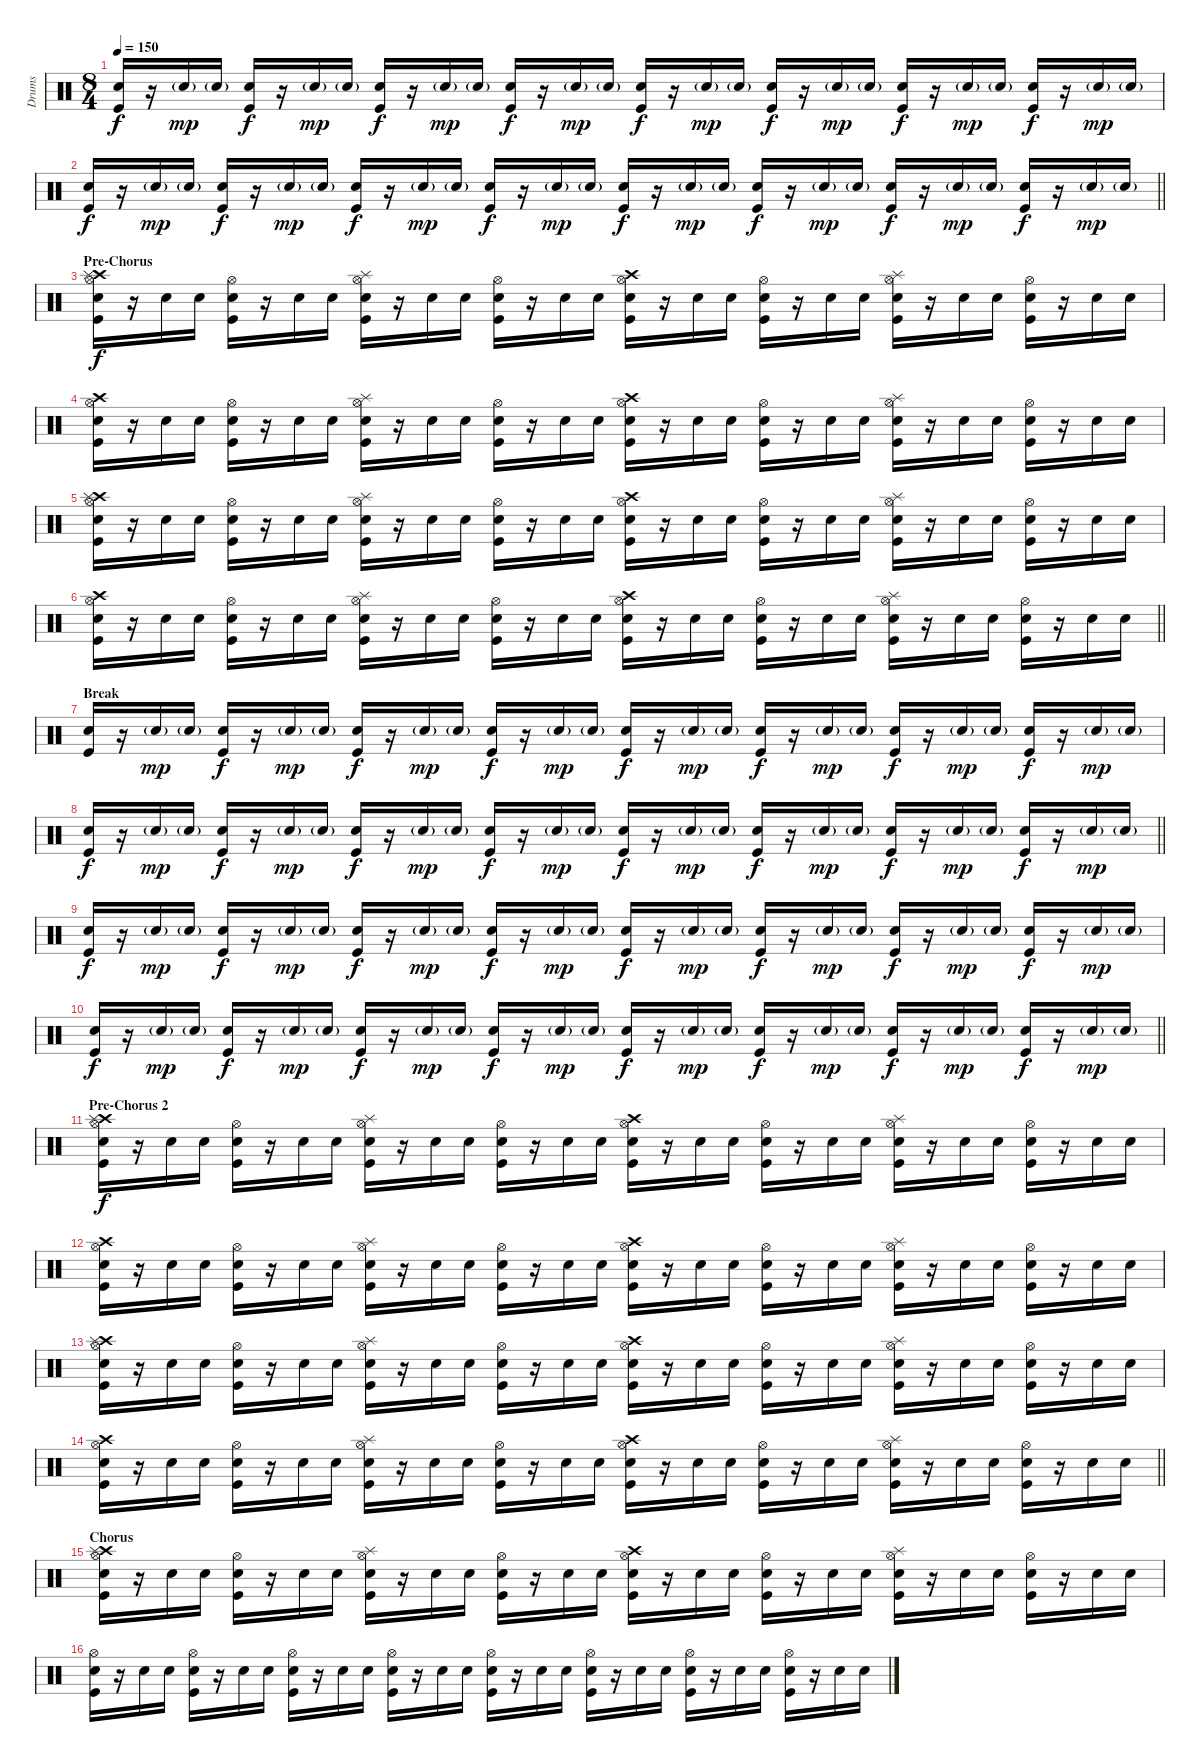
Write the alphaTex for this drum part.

\track ("Drums" "Drums") {instrument percussion}
\staff {score}
\articulation defaults
\ts (8 4)
\tempo 150
\clef neutral
\ks c
("Electric Snare (hit)" "Kick (hit)").16{dy f} r.16 "Electric Snare (hit)"{g}.16{dy mp} "Electric Snare (hit)"{g}.16 ("Electric Snare (hit)" "Kick (hit)").16{dy f} r.16 "Electric Snare (hit)"{g}.16{dy mp} "Electric Snare (hit)"{g}.16 ("Electric Snare (hit)" "Kick (hit)").16{dy f} r.16 "Electric Snare (hit)"{g}.16{dy mp} "Electric Snare (hit)"{g}.16 ("Electric Snare (hit)" "Kick (hit)").16{dy f} r.16 "Electric Snare (hit)"{g}.16{dy mp} "Electric Snare (hit)"{g}.16 ("Electric Snare (hit)" "Kick (hit)").16{dy f} r.16 "Electric Snare (hit)"{g}.16{dy mp} "Electric Snare (hit)"{g}.16 ("Electric Snare (hit)" "Kick (hit)").16{dy f} r.16 "Electric Snare (hit)"{g}.16{dy mp} "Electric Snare (hit)"{g}.16 ("Electric Snare (hit)" "Kick (hit)").16{dy f} r.16 "Electric Snare (hit)"{g}.16{dy mp} "Electric Snare (hit)"{g}.16 ("Electric Snare (hit)" "Kick (hit)").16{dy f} r.16 "Electric Snare (hit)"{g}.16{dy mp} "Electric Snare (hit)"{g}.16 |
\barLineRight lightlight
("Electric Snare (hit)" "Kick (hit)").16{dy f} r.16 "Electric Snare (hit)"{g}.16{dy mp} "Electric Snare (hit)"{g}.16 ("Electric Snare (hit)" "Kick (hit)").16{dy f} r.16 "Electric Snare (hit)"{g}.16{dy mp} "Electric Snare (hit)"{g}.16 ("Electric Snare (hit)" "Kick (hit)").16{dy f} r.16 "Electric Snare (hit)"{g}.16{dy mp} "Electric Snare (hit)"{g}.16 ("Electric Snare (hit)" "Kick (hit)").16{dy f} r.16 "Electric Snare (hit)"{g}.16{dy mp} "Electric Snare (hit)"{g}.16 ("Electric Snare (hit)" "Kick (hit)").16{dy f} r.16 "Electric Snare (hit)"{g}.16{dy mp} "Electric Snare (hit)"{g}.16 ("Electric Snare (hit)" "Kick (hit)").16{dy f} r.16 "Electric Snare (hit)"{g}.16{dy mp} "Electric Snare (hit)"{g}.16 ("Electric Snare (hit)" "Kick (hit)").16{dy f} r.16 "Electric Snare (hit)"{g}.16{dy mp} "Electric Snare (hit)"{g}.16 ("Electric Snare (hit)" "Kick (hit)").16{dy f} r.16 "Electric Snare (hit)"{g}.16{dy mp} "Electric Snare (hit)"{g}.16 |
\section ("" "Pre-Chorus")
("Crash high (hit)" "Splash (hit)" "Hi-Hat (open)" "Electric Snare (hit)" "Kick (hit)").16{dy f} r.16 "Electric Snare (hit)".16 "Electric Snare (hit)".16 ("Hi-Hat (open)" "Electric Snare (hit)" "Kick (hit)").16 r.16 "Electric Snare (hit)".16 "Electric Snare (hit)".16 ("Splash (hit)" "Hi-Hat (open)" "Electric Snare (hit)" "Kick (hit)").16 r.16 "Electric Snare (hit)".16 "Electric Snare (hit)".16 ("Hi-Hat (open)" "Electric Snare (hit)" "Kick (hit)").16 r.16 "Electric Snare (hit)".16 "Electric Snare (hit)".16 ("Crash high (hit)" "Hi-Hat (open)" "Electric Snare (hit)" "Kick (hit)").16 r.16 "Electric Snare (hit)".16 "Electric Snare (hit)".16 ("Hi-Hat (open)" "Electric Snare (hit)" "Kick (hit)").16 r.16 "Electric Snare (hit)".16 "Electric Snare (hit)".16 ("Splash (hit)" "Hi-Hat (open)" "Electric Snare (hit)" "Kick (hit)").16 r.16 "Electric Snare (hit)".16 "Electric Snare (hit)".16 ("Hi-Hat (open)" "Electric Snare (hit)" "Kick (hit)").16 r.16 "Electric Snare (hit)".16 "Electric Snare (hit)".16 |
("Crash high (hit)" "Hi-Hat (open)" "Electric Snare (hit)" "Kick (hit)").16 r.16 "Electric Snare (hit)".16 "Electric Snare (hit)".16 ("Hi-Hat (open)" "Electric Snare (hit)" "Kick (hit)").16 r.16 "Electric Snare (hit)".16 "Electric Snare (hit)".16 ("Splash (hit)" "Hi-Hat (open)" "Electric Snare (hit)" "Kick (hit)").16 r.16 "Electric Snare (hit)".16 "Electric Snare (hit)".16 ("Hi-Hat (open)" "Electric Snare (hit)" "Kick (hit)").16 r.16 "Electric Snare (hit)".16 "Electric Snare (hit)".16 ("Crash high (hit)" "Hi-Hat (open)" "Electric Snare (hit)" "Kick (hit)").16 r.16 "Electric Snare (hit)".16 "Electric Snare (hit)".16 ("Hi-Hat (open)" "Electric Snare (hit)" "Kick (hit)").16 r.16 "Electric Snare (hit)".16 "Electric Snare (hit)".16 ("Splash (hit)" "Hi-Hat (open)" "Electric Snare (hit)" "Kick (hit)").16 r.16 "Electric Snare (hit)".16 "Electric Snare (hit)".16 ("Hi-Hat (open)" "Electric Snare (hit)" "Kick (hit)").16 r.16 "Electric Snare (hit)".16 "Electric Snare (hit)".16 |
("Crash high (hit)" "Splash (hit)" "Hi-Hat (open)" "Electric Snare (hit)" "Kick (hit)").16 r.16 "Electric Snare (hit)".16 "Electric Snare (hit)".16 ("Hi-Hat (open)" "Electric Snare (hit)" "Kick (hit)").16 r.16 "Electric Snare (hit)".16 "Electric Snare (hit)".16 ("Splash (hit)" "Hi-Hat (open)" "Electric Snare (hit)" "Kick (hit)").16 r.16 "Electric Snare (hit)".16 "Electric Snare (hit)".16 ("Hi-Hat (open)" "Electric Snare (hit)" "Kick (hit)").16 r.16 "Electric Snare (hit)".16 "Electric Snare (hit)".16 ("Crash high (hit)" "Hi-Hat (open)" "Electric Snare (hit)" "Kick (hit)").16 r.16 "Electric Snare (hit)".16 "Electric Snare (hit)".16 ("Hi-Hat (open)" "Electric Snare (hit)" "Kick (hit)").16 r.16 "Electric Snare (hit)".16 "Electric Snare (hit)".16 ("Splash (hit)" "Hi-Hat (open)" "Electric Snare (hit)" "Kick (hit)").16 r.16 "Electric Snare (hit)".16 "Electric Snare (hit)".16 ("Hi-Hat (open)" "Electric Snare (hit)" "Kick (hit)").16 r.16 "Electric Snare (hit)".16 "Electric Snare (hit)".16 |
\barLineRight lightlight
("Crash high (hit)" "Hi-Hat (open)" "Electric Snare (hit)" "Kick (hit)").16 r.16 "Electric Snare (hit)".16 "Electric Snare (hit)".16 ("Hi-Hat (open)" "Electric Snare (hit)" "Kick (hit)").16 r.16 "Electric Snare (hit)".16 "Electric Snare (hit)".16 ("Splash (hit)" "Hi-Hat (open)" "Electric Snare (hit)" "Kick (hit)").16 r.16 "Electric Snare (hit)".16 "Electric Snare (hit)".16 ("Hi-Hat (open)" "Electric Snare (hit)" "Kick (hit)").16 r.16 "Electric Snare (hit)".16 "Electric Snare (hit)".16 ("Crash high (hit)" "Hi-Hat (open)" "Electric Snare (hit)" "Kick (hit)").16 r.16 "Electric Snare (hit)".16 "Electric Snare (hit)".16 ("Hi-Hat (open)" "Electric Snare (hit)" "Kick (hit)").16 r.16 "Electric Snare (hit)".16 "Electric Snare (hit)".16 ("Splash (hit)" "Hi-Hat (open)" "Electric Snare (hit)" "Kick (hit)").16 r.16 "Electric Snare (hit)".16 "Electric Snare (hit)".16 ("Hi-Hat (open)" "Electric Snare (hit)" "Kick (hit)").16 r.16 "Electric Snare (hit)".16 "Electric Snare (hit)".16 |
\section ("" "Break")
("Electric Snare (hit)" "Kick (hit)").16 r.16 "Electric Snare (hit)"{g}.16{dy mp} "Electric Snare (hit)"{g}.16 ("Electric Snare (hit)" "Kick (hit)").16{dy f} r.16 "Electric Snare (hit)"{g}.16{dy mp} "Electric Snare (hit)"{g}.16 ("Electric Snare (hit)" "Kick (hit)").16{dy f} r.16 "Electric Snare (hit)"{g}.16{dy mp} "Electric Snare (hit)"{g}.16 ("Electric Snare (hit)" "Kick (hit)").16{dy f} r.16 "Electric Snare (hit)"{g}.16{dy mp} "Electric Snare (hit)"{g}.16 ("Electric Snare (hit)" "Kick (hit)").16{dy f} r.16 "Electric Snare (hit)"{g}.16{dy mp} "Electric Snare (hit)"{g}.16 ("Electric Snare (hit)" "Kick (hit)").16{dy f} r.16 "Electric Snare (hit)"{g}.16{dy mp} "Electric Snare (hit)"{g}.16 ("Electric Snare (hit)" "Kick (hit)").16{dy f} r.16 "Electric Snare (hit)"{g}.16{dy mp} "Electric Snare (hit)"{g}.16 ("Electric Snare (hit)" "Kick (hit)").16{dy f} r.16 "Electric Snare (hit)"{g}.16{dy mp} "Electric Snare (hit)"{g}.16 |
\barLineRight lightlight
("Electric Snare (hit)" "Kick (hit)").16{dy f} r.16 "Electric Snare (hit)"{g}.16{dy mp} "Electric Snare (hit)"{g}.16 ("Electric Snare (hit)" "Kick (hit)").16{dy f} r.16 "Electric Snare (hit)"{g}.16{dy mp} "Electric Snare (hit)"{g}.16 ("Electric Snare (hit)" "Kick (hit)").16{dy f} r.16 "Electric Snare (hit)"{g}.16{dy mp} "Electric Snare (hit)"{g}.16 ("Electric Snare (hit)" "Kick (hit)").16{dy f} r.16 "Electric Snare (hit)"{g}.16{dy mp} "Electric Snare (hit)"{g}.16 ("Electric Snare (hit)" "Kick (hit)").16{dy f} r.16 "Electric Snare (hit)"{g}.16{dy mp} "Electric Snare (hit)"{g}.16 ("Electric Snare (hit)" "Kick (hit)").16{dy f} r.16 "Electric Snare (hit)"{g}.16{dy mp} "Electric Snare (hit)"{g}.16 ("Electric Snare (hit)" "Kick (hit)").16{dy f} r.16 "Electric Snare (hit)"{g}.16{dy mp} "Electric Snare (hit)"{g}.16 ("Electric Snare (hit)" "Kick (hit)").16{dy f} r.16 "Electric Snare (hit)"{g}.16{dy mp} "Electric Snare (hit)"{g}.16 |
("Electric Snare (hit)" "Kick (hit)").16{dy f} r.16 "Electric Snare (hit)"{g}.16{dy mp} "Electric Snare (hit)"{g}.16 ("Electric Snare (hit)" "Kick (hit)").16{dy f} r.16 "Electric Snare (hit)"{g}.16{dy mp} "Electric Snare (hit)"{g}.16 ("Electric Snare (hit)" "Kick (hit)").16{dy f} r.16 "Electric Snare (hit)"{g}.16{dy mp} "Electric Snare (hit)"{g}.16 ("Electric Snare (hit)" "Kick (hit)").16{dy f} r.16 "Electric Snare (hit)"{g}.16{dy mp} "Electric Snare (hit)"{g}.16 ("Electric Snare (hit)" "Kick (hit)").16{dy f} r.16 "Electric Snare (hit)"{g}.16{dy mp} "Electric Snare (hit)"{g}.16 ("Electric Snare (hit)" "Kick (hit)").16{dy f} r.16 "Electric Snare (hit)"{g}.16{dy mp} "Electric Snare (hit)"{g}.16 ("Electric Snare (hit)" "Kick (hit)").16{dy f} r.16 "Electric Snare (hit)"{g}.16{dy mp} "Electric Snare (hit)"{g}.16 ("Electric Snare (hit)" "Kick (hit)").16{dy f} r.16 "Electric Snare (hit)"{g}.16{dy mp} "Electric Snare (hit)"{g}.16 |
\barLineRight lightlight
("Electric Snare (hit)" "Kick (hit)").16{dy f} r.16 "Electric Snare (hit)"{g}.16{dy mp} "Electric Snare (hit)"{g}.16 ("Electric Snare (hit)" "Kick (hit)").16{dy f} r.16 "Electric Snare (hit)"{g}.16{dy mp} "Electric Snare (hit)"{g}.16 ("Electric Snare (hit)" "Kick (hit)").16{dy f} r.16 "Electric Snare (hit)"{g}.16{dy mp} "Electric Snare (hit)"{g}.16 ("Electric Snare (hit)" "Kick (hit)").16{dy f} r.16 "Electric Snare (hit)"{g}.16{dy mp} "Electric Snare (hit)"{g}.16 ("Electric Snare (hit)" "Kick (hit)").16{dy f} r.16 "Electric Snare (hit)"{g}.16{dy mp} "Electric Snare (hit)"{g}.16 ("Electric Snare (hit)" "Kick (hit)").16{dy f} r.16 "Electric Snare (hit)"{g}.16{dy mp} "Electric Snare (hit)"{g}.16 ("Electric Snare (hit)" "Kick (hit)").16{dy f} r.16 "Electric Snare (hit)"{g}.16{dy mp} "Electric Snare (hit)"{g}.16 ("Electric Snare (hit)" "Kick (hit)").16{dy f} r.16 "Electric Snare (hit)"{g}.16{dy mp} "Electric Snare (hit)"{g}.16 |
\section ("" "Pre-Chorus 2")
("Crash high (hit)" "Splash (hit)" "Hi-Hat (open)" "Electric Snare (hit)" "Kick (hit)").16{dy f} r.16 "Electric Snare (hit)".16 "Electric Snare (hit)".16 ("Hi-Hat (open)" "Electric Snare (hit)" "Kick (hit)").16 r.16 "Electric Snare (hit)".16 "Electric Snare (hit)".16 ("Splash (hit)" "Hi-Hat (open)" "Electric Snare (hit)" "Kick (hit)").16 r.16 "Electric Snare (hit)".16 "Electric Snare (hit)".16 ("Hi-Hat (open)" "Electric Snare (hit)" "Kick (hit)").16 r.16 "Electric Snare (hit)".16 "Electric Snare (hit)".16 ("Crash high (hit)" "Hi-Hat (open)" "Electric Snare (hit)" "Kick (hit)").16 r.16 "Electric Snare (hit)".16 "Electric Snare (hit)".16 ("Hi-Hat (open)" "Electric Snare (hit)" "Kick (hit)").16 r.16 "Electric Snare (hit)".16 "Electric Snare (hit)".16 ("Splash (hit)" "Hi-Hat (open)" "Electric Snare (hit)" "Kick (hit)").16 r.16 "Electric Snare (hit)".16 "Electric Snare (hit)".16 ("Hi-Hat (open)" "Electric Snare (hit)" "Kick (hit)").16 r.16 "Electric Snare (hit)".16 "Electric Snare (hit)".16 |
("Crash high (hit)" "Hi-Hat (open)" "Electric Snare (hit)" "Kick (hit)").16 r.16 "Electric Snare (hit)".16 "Electric Snare (hit)".16 ("Hi-Hat (open)" "Electric Snare (hit)" "Kick (hit)").16 r.16 "Electric Snare (hit)".16 "Electric Snare (hit)".16 ("Splash (hit)" "Hi-Hat (open)" "Electric Snare (hit)" "Kick (hit)").16 r.16 "Electric Snare (hit)".16 "Electric Snare (hit)".16 ("Hi-Hat (open)" "Electric Snare (hit)" "Kick (hit)").16 r.16 "Electric Snare (hit)".16 "Electric Snare (hit)".16 ("Crash high (hit)" "Hi-Hat (open)" "Electric Snare (hit)" "Kick (hit)").16 r.16 "Electric Snare (hit)".16 "Electric Snare (hit)".16 ("Hi-Hat (open)" "Electric Snare (hit)" "Kick (hit)").16 r.16 "Electric Snare (hit)".16 "Electric Snare (hit)".16 ("Splash (hit)" "Hi-Hat (open)" "Electric Snare (hit)" "Kick (hit)").16 r.16 "Electric Snare (hit)".16 "Electric Snare (hit)".16 ("Hi-Hat (open)" "Electric Snare (hit)" "Kick (hit)").16 r.16 "Electric Snare (hit)".16 "Electric Snare (hit)".16 |
("Crash high (hit)" "Splash (hit)" "Hi-Hat (open)" "Electric Snare (hit)" "Kick (hit)").16 r.16 "Electric Snare (hit)".16 "Electric Snare (hit)".16 ("Hi-Hat (open)" "Electric Snare (hit)" "Kick (hit)").16 r.16 "Electric Snare (hit)".16 "Electric Snare (hit)".16 ("Splash (hit)" "Hi-Hat (open)" "Electric Snare (hit)" "Kick (hit)").16 r.16 "Electric Snare (hit)".16 "Electric Snare (hit)".16 ("Hi-Hat (open)" "Electric Snare (hit)" "Kick (hit)").16 r.16 "Electric Snare (hit)".16 "Electric Snare (hit)".16 ("Crash high (hit)" "Hi-Hat (open)" "Electric Snare (hit)" "Kick (hit)").16 r.16 "Electric Snare (hit)".16 "Electric Snare (hit)".16 ("Hi-Hat (open)" "Electric Snare (hit)" "Kick (hit)").16 r.16 "Electric Snare (hit)".16 "Electric Snare (hit)".16 ("Splash (hit)" "Hi-Hat (open)" "Electric Snare (hit)" "Kick (hit)").16 r.16 "Electric Snare (hit)".16 "Electric Snare (hit)".16 ("Hi-Hat (open)" "Electric Snare (hit)" "Kick (hit)").16 r.16 "Electric Snare (hit)".16 "Electric Snare (hit)".16 |
\barLineRight lightlight
("Crash high (hit)" "Hi-Hat (open)" "Electric Snare (hit)" "Kick (hit)").16 r.16 "Electric Snare (hit)".16 "Electric Snare (hit)".16 ("Hi-Hat (open)" "Electric Snare (hit)" "Kick (hit)").16 r.16 "Electric Snare (hit)".16 "Electric Snare (hit)".16 ("Splash (hit)" "Hi-Hat (open)" "Electric Snare (hit)" "Kick (hit)").16 r.16 "Electric Snare (hit)".16 "Electric Snare (hit)".16 ("Hi-Hat (open)" "Electric Snare (hit)" "Kick (hit)").16 r.16 "Electric Snare (hit)".16 "Electric Snare (hit)".16 ("Crash high (hit)" "Hi-Hat (open)" "Electric Snare (hit)" "Kick (hit)").16 r.16 "Electric Snare (hit)".16 "Electric Snare (hit)".16 ("Hi-Hat (open)" "Electric Snare (hit)" "Kick (hit)").16 r.16 "Electric Snare (hit)".16 "Electric Snare (hit)".16 ("Splash (hit)" "Hi-Hat (open)" "Electric Snare (hit)" "Kick (hit)").16 r.16 "Electric Snare (hit)".16 "Electric Snare (hit)".16 ("Hi-Hat (open)" "Electric Snare (hit)" "Kick (hit)").16 r.16 "Electric Snare (hit)".16 "Electric Snare (hit)".16 |
\section ("" "Chorus")
("Crash high (hit)" "Splash (hit)" "Hi-Hat (open)" "Electric Snare (hit)" "Kick (hit)").16 r.16 "Electric Snare (hit)".16 "Electric Snare (hit)".16 ("Hi-Hat (open)" "Electric Snare (hit)" "Kick (hit)").16 r.16 "Electric Snare (hit)".16 "Electric Snare (hit)".16 ("Splash (hit)" "Hi-Hat (open)" "Electric Snare (hit)" "Kick (hit)").16 r.16 "Electric Snare (hit)".16 "Electric Snare (hit)".16 ("Hi-Hat (open)" "Electric Snare (hit)" "Kick (hit)").16 r.16 "Electric Snare (hit)".16 "Electric Snare (hit)".16 ("Crash high (hit)" "Hi-Hat (open)" "Electric Snare (hit)" "Kick (hit)").16 r.16 "Electric Snare (hit)".16 "Electric Snare (hit)".16 ("Hi-Hat (open)" "Electric Snare (hit)" "Kick (hit)").16 r.16 "Electric Snare (hit)".16 "Electric Snare (hit)".16 ("Splash (hit)" "Hi-Hat (open)" "Electric Snare (hit)" "Kick (hit)").16 r.16 "Electric Snare (hit)".16 "Electric Snare (hit)".16 ("Hi-Hat (open)" "Electric Snare (hit)" "Kick (hit)").16 r.16 "Electric Snare (hit)".16 "Electric Snare (hit)".16 |
("Hi-Hat (open)" "Electric Snare (hit)" "Kick (hit)").16 r.16 "Electric Snare (hit)".16 "Electric Snare (hit)".16 ("Hi-Hat (open)" "Electric Snare (hit)" "Kick (hit)").16 r.16 "Electric Snare (hit)".16 "Electric Snare (hit)".16 ("Hi-Hat (open)" "Electric Snare (hit)" "Kick (hit)").16 r.16 "Electric Snare (hit)".16 "Electric Snare (hit)".16 ("Hi-Hat (open)" "Electric Snare (hit)" "Kick (hit)").16 r.16 "Electric Snare (hit)".16 "Electric Snare (hit)".16 ("Hi-Hat (open)" "Electric Snare (hit)" "Kick (hit)").16 r.16 "Electric Snare (hit)".16 "Electric Snare (hit)".16 ("Hi-Hat (open)" "Electric Snare (hit)" "Kick (hit)").16 r.16 "Electric Snare (hit)".16 "Electric Snare (hit)".16 ("Hi-Hat (open)" "Electric Snare (hit)" "Kick (hit)").16 r.16 "Electric Snare (hit)".16 "Electric Snare (hit)".16 ("Hi-Hat (open)" "Electric Snare (hit)" "Kick (hit)").16 r.16 "Electric Snare (hit)".16 "Electric Snare (hit)".16
